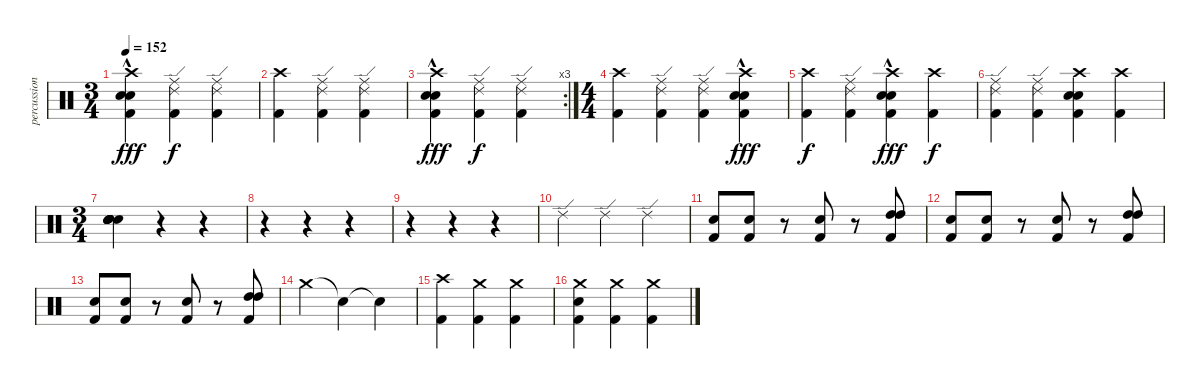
\track ("percussion" "percussion") {instrument percussion bank 177}
\staff {score}
\articulation defaults
\ts (3 4)
\tempo 152
\clef neutral
\ks c
("Kick (hit) 2" "Electric Snare (hit)"{hac} "Electric Snare (hit)"{hac} "Crash high (hit)").4{dy fff} ("Kick (hit) 2" "Ride (edge) 2" "Ride (middle)").4{dy f} ("Kick (hit) 2" "Ride (edge) 2" "Ride (middle)").4 |
("Kick (hit) 2" "Crash high (hit)").4 ("Kick (hit) 2" "Ride (edge) 2" "Ride (middle)").4 ("Kick (hit) 2" "Ride (edge) 2" "Ride (middle)").4 |
\rc 3
("Kick (hit) 2" "Electric Snare (hit)"{hac} "Electric Snare (hit)"{hac} "Crash high (hit)").4{dy fff} ("Kick (hit) 2" "Ride (edge) 2" "Ride (middle)").4{dy f} ("Kick (hit) 2" "Ride (edge) 2" "Ride (middle)").4 |
\ts (4 4)
("Kick (hit) 2" "Crash high (hit)").4 ("Kick (hit) 2" "Ride (edge) 2" "Ride (middle)").4 ("Kick (hit) 2" "Ride (edge) 2" "Ride (middle)").4 ("Kick (hit) 2" "Electric Snare (hit)"{hac} "Electric Snare (hit)"{hac} "Crash high (hit)").4{dy fff} |
("Kick (hit) 2" "Crash high (hit)").4{dy f} ("Kick (hit) 2" "Ride (edge) 2" "Ride (middle)").4 ("Kick (hit) 2" "Electric Snare (hit)"{hac} "Electric Snare (hit)"{hac} "Crash high (hit)").4{dy fff} ("Kick (hit) 2" "Crash high (hit)").4{dy f} |
("Kick (hit) 2" "Ride (edge) 2" "Ride (middle)").4 ("Kick (hit) 2" "Ride (edge) 2" "Ride (middle)").4 ("Kick (hit) 2" "Electric Snare (hit)" "Electric Snare (hit)" "Crash high (hit)").4 ("Kick (hit) 2" "Crash high (hit)").4 |
\ts (3 4)
("Snare (hit) 2" "Snare (hit) 2" "Snare (hit) 2" "Electric Snare (hit)" "Electric Snare (hit)" "Electric Snare (hit)").4 r.4 r.4 |
r.4 r.4 r.4 |
r.4 r.4 r.4 |
"Ride (edge) 2".4 "Ride (edge) 2".4 "Ride (edge) 2".4 |
("Kick (hit) 2" "Electric Snare (hit)").8 ("Kick (hit) 2" "Electric Snare (hit)").8 r.8 ("Kick (hit) 2" "Electric Snare (hit)").8 r.8 ("Kick (hit) 2" "High Tom (hit)" "High Tom (hit)").8 |
("Kick (hit) 2" "Electric Snare (hit)").8 ("Kick (hit) 2" "Electric Snare (hit)").8 r.8 ("Kick (hit) 2" "Electric Snare (hit)").8 r.8 ("Kick (hit) 2" "High Tom (hit)" "High Tom (hit)").8 |
("Kick (hit) 2" "Electric Snare (hit)").8 ("Kick (hit) 2" "Electric Snare (hit)").8 r.8 ("Kick (hit) 2" "Electric Snare (hit)").8 r.8 ("Kick (hit) 2" "High Tom (hit)" "High Tom (hit)").8 |
"Crash medium (hit)".4 "Snare (hit)"{t}.4 "Snare (hit)"{t}.4 |
("Kick (hit) 2" "Crash high (hit)").4 ("Kick (hit) 2" "Crash medium (hit)").4 ("Kick (hit) 2" "Crash medium (hit)").4 |
("Kick (hit) 2" "Electric Snare (hit)" "Crash medium (hit)").4 ("Kick (hit) 2" "Crash medium (hit)").4 ("Kick (hit) 2" "Crash medium (hit)").4
